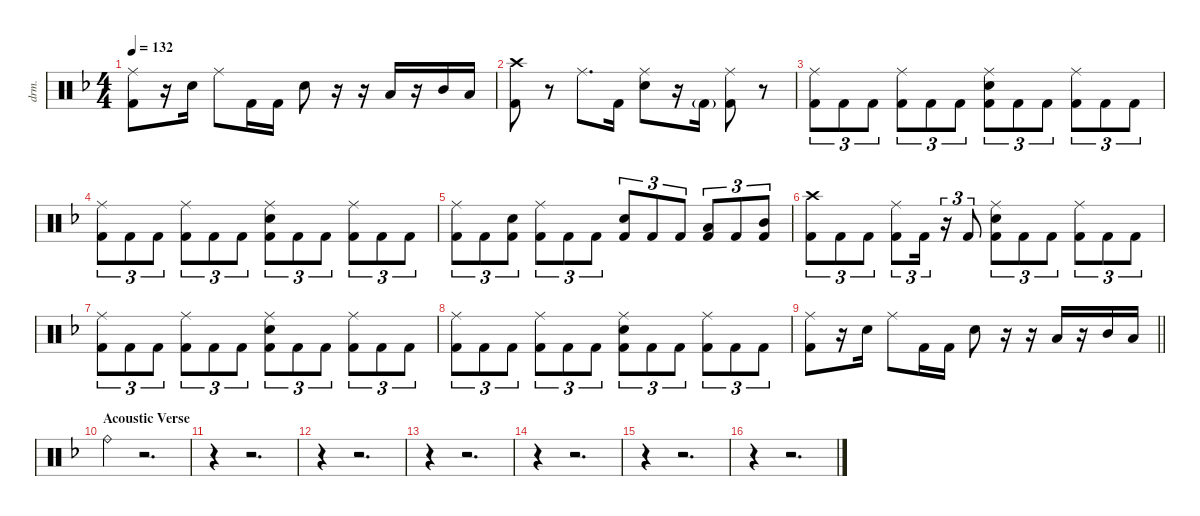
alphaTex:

\defaultSystemsLayout 4
\hideDynamics
\bracketExtendMode nobrackets
\otherSystemsTrackNameOrientation horizontal
\track ("Drums" "drm.") {instrument percussion}
\staff {score}
\articulation defaults
\ts (4 4)
\tempo 132
\clef neutral
\ks dminor
("Ride (middle)"{acc forcenatural} "Kick (hit) 2"{acc forcenatural}).8{dy f} r.16 "Snare (hit) 2"{acc forcenatural}.16 "Ride (middle)"{acc forcenatural}.8 "Kick (hit) 2"{acc forcenatural}.16 "Kick (hit) 2"{acc forcenatural}.16 "Snare (hit) 2"{acc forcenatural}.8 r.16 r.16 "Low Tom (hit)"{acc forcenatural}.16 r.16 "Mid Tom (hit)"{acc forcenatural}.16 "Low Tom (hit)"{acc forcenatural}.16 |
("Crash high (hit)"{acc forcenatural} "Kick (hit) 2"{acc forcenatural}).8 r.8 "Ride (middle)"{acc forcenatural}.8{d} "Kick (hit) 2"{acc forcenatural}.16 ("Ride (middle)"{acc forcenatural} "Snare (hit) 2"{acc forcenatural}).8 r.16 "Kick (hit) 2"{g acc forcenatural}.16{dy mf} ("Ride (middle)"{acc forcenatural} "Kick (hit) 2"{acc forcenatural}).8{dy f} r.8 |
("Ride (middle)"{acc forcenatural} "Kick (hit) 2"{acc forcenatural}).8{tu (3 2)} "Kick (hit) 2"{acc forcenatural}.8{tu (3 2)} "Kick (hit) 2"{acc forcenatural}.8{tu (3 2)} ("Ride (middle)"{acc forcenatural} "Kick (hit) 2"{acc forcenatural}).8{tu (3 2)} "Kick (hit) 2"{acc forcenatural}.8{tu (3 2)} "Kick (hit) 2"{acc forcenatural}.8{tu (3 2)} ("Ride (middle)"{acc forcenatural} "Snare (hit) 2"{acc forcenatural} "Kick (hit) 2"{acc forcenatural}).8{tu (3 2)} "Kick (hit) 2"{acc forcenatural}.8{tu (3 2)} "Kick (hit) 2"{acc forcenatural}.8{tu (3 2)} ("Ride (middle)"{acc forcenatural} "Kick (hit) 2"{acc forcenatural}).8{tu (3 2)} "Kick (hit) 2"{acc forcenatural}.8{tu (3 2)} "Kick (hit) 2"{acc forcenatural}.8{tu (3 2)} |
("Ride (middle)"{acc forcenatural} "Kick (hit) 2"{acc forcenatural}).8{tu (3 2)} "Kick (hit) 2"{acc forcenatural}.8{tu (3 2)} "Kick (hit) 2"{acc forcenatural}.8{tu (3 2)} ("Ride (middle)"{acc forcenatural} "Kick (hit) 2"{acc forcenatural}).8{tu (3 2)} "Kick (hit) 2"{acc forcenatural}.8{tu (3 2)} "Kick (hit) 2"{acc forcenatural}.8{tu (3 2)} ("Ride (middle)"{acc forcenatural} "Snare (hit) 2"{acc forcenatural} "Kick (hit) 2"{acc forcenatural}).8{tu (3 2)} "Kick (hit) 2"{acc forcenatural}.8{tu (3 2)} "Kick (hit) 2"{acc forcenatural}.8{tu (3 2)} ("Ride (middle)"{acc forcenatural} "Kick (hit) 2"{acc forcenatural}).8{tu (3 2)} "Kick (hit) 2"{acc forcenatural}.8{tu (3 2)} "Kick (hit) 2"{acc forcenatural}.8{tu (3 2)} |
("Ride (middle)"{acc forcenatural} "Kick (hit) 2"{acc forcenatural}).8{tu (3 2)} "Kick (hit) 2"{acc forcenatural}.8{tu (3 2)} ("Snare (hit) 2"{acc forcenatural} "Kick (hit) 2"{acc forcenatural}).8{tu (3 2)} ("Ride (middle)"{acc forcenatural} "Kick (hit) 2"{acc forcenatural}).8{tu (3 2)} "Kick (hit) 2"{acc forcenatural}.8{tu (3 2)} "Kick (hit) 2"{acc forcenatural}.8{tu (3 2)} ("Snare (hit) 2"{acc forcenatural} "Kick (hit) 2"{acc forcenatural}).8{tu (3 2)} "Kick (hit) 2"{acc forcenatural}.8{tu (3 2)} "Kick (hit) 2"{acc forcenatural}.8{tu (3 2)} ("Low Tom (hit)"{acc forcenatural} "Kick (hit) 2"{acc forcenatural}).8{tu (3 2)} "Kick (hit) 2"{acc forcenatural}.8{tu (3 2)} ("Mid Tom (hit)"{acc forcenatural} "Kick (hit) 2"{acc forcenatural}).8{tu (3 2)} |
("Crash high (hit)"{acc forcenatural} "Kick (hit) 2"{acc forcenatural}).8{tu (3 2)} "Kick (hit) 2"{acc forcenatural}.8{tu (3 2)} "Kick (hit) 2"{acc forcenatural}.8{tu (3 2)} ("Ride (middle)"{acc forcenatural} "Kick (hit) 2"{acc forcenatural}).8{tu (3 2)} "Kick (hit) 2"{acc forcenatural}.16{tu (3 2)} r.16{tu (3 2)} "Kick (hit) 2"{acc forcenatural}.8{tu (3 2)} ("Ride (middle)"{acc forcenatural} "Snare (hit) 2"{acc forcenatural} "Kick (hit) 2"{acc forcenatural}).8{tu (3 2)} "Kick (hit) 2"{acc forcenatural}.8{tu (3 2)} "Kick (hit) 2"{acc forcenatural}.8{tu (3 2)} ("Ride (middle)"{acc forcenatural} "Kick (hit) 2"{acc forcenatural}).8{tu (3 2)} "Kick (hit) 2"{acc forcenatural}.8{tu (3 2)} "Kick (hit) 2"{acc forcenatural}.8{tu (3 2)} |
("Ride (middle)"{acc forcenatural} "Kick (hit) 2"{acc forcenatural}).8{tu (3 2)} "Kick (hit) 2"{acc forcenatural}.8{tu (3 2)} "Kick (hit) 2"{acc forcenatural}.8{tu (3 2)} ("Ride (middle)"{acc forcenatural} "Kick (hit) 2"{acc forcenatural}).8{tu (3 2)} "Kick (hit) 2"{acc forcenatural}.8{tu (3 2)} "Kick (hit) 2"{acc forcenatural}.8{tu (3 2)} ("Ride (middle)"{acc forcenatural} "Snare (hit) 2"{acc forcenatural} "Kick (hit) 2"{acc forcenatural}).8{tu (3 2)} "Kick (hit) 2"{acc forcenatural}.8{tu (3 2)} "Kick (hit) 2"{acc forcenatural}.8{tu (3 2)} ("Ride (middle)"{acc forcenatural} "Kick (hit) 2"{acc forcenatural}).8{tu (3 2)} "Kick (hit) 2"{acc forcenatural}.8{tu (3 2)} "Kick (hit) 2"{acc forcenatural}.8{tu (3 2)} |
("Ride (middle)"{acc forcenatural} "Kick (hit) 2"{acc forcenatural}).8{tu (3 2)} "Kick (hit) 2"{acc forcenatural}.8{tu (3 2)} "Kick (hit) 2"{acc forcenatural}.8{tu (3 2)} ("Ride (middle)"{acc forcenatural} "Kick (hit) 2"{acc forcenatural}).8{tu (3 2)} "Kick (hit) 2"{acc forcenatural}.8{tu (3 2)} "Kick (hit) 2"{acc forcenatural}.8{tu (3 2)} ("Ride (middle)"{acc forcenatural} "Snare (hit) 2"{acc forcenatural} "Kick (hit) 2"{acc forcenatural}).8{tu (3 2)} "Kick (hit) 2"{acc forcenatural}.8{tu (3 2)} "Kick (hit) 2"{acc forcenatural}.8{tu (3 2)} ("Ride (middle)"{acc forcenatural} "Kick (hit) 2"{acc forcenatural}).8{tu (3 2)} "Kick (hit) 2"{acc forcenatural}.8{tu (3 2)} "Kick (hit) 2"{acc forcenatural}.8{tu (3 2)} |
\barLineRight lightlight
("Ride (middle)"{acc forcenatural} "Kick (hit) 2"{acc forcenatural}).8 r.16 "Snare (hit) 2"{acc forcenatural}.16 "Ride (middle)"{acc forcenatural}.8 "Kick (hit) 2"{acc forcenatural}.16 "Kick (hit) 2"{acc forcenatural}.16 "Snare (hit) 2"{acc forcenatural}.8 r.16 r.16 "Low Tom (hit)"{acc forcenatural}.16 r.16 "Mid Tom (hit)"{acc forcenatural}.16 "Low Tom (hit)"{acc forcenatural}.16 |
\section ("" "Acoustic Verse")
"Ride (bell)"{acc forcenatural}.4 r.2{d} |
r.4 r.2{d} |
r.4 r.2{d} |
r.4 r.2{d} |
r.4 r.2{d} |
r.4 r.2{d} |
r.4 r.2{d}
